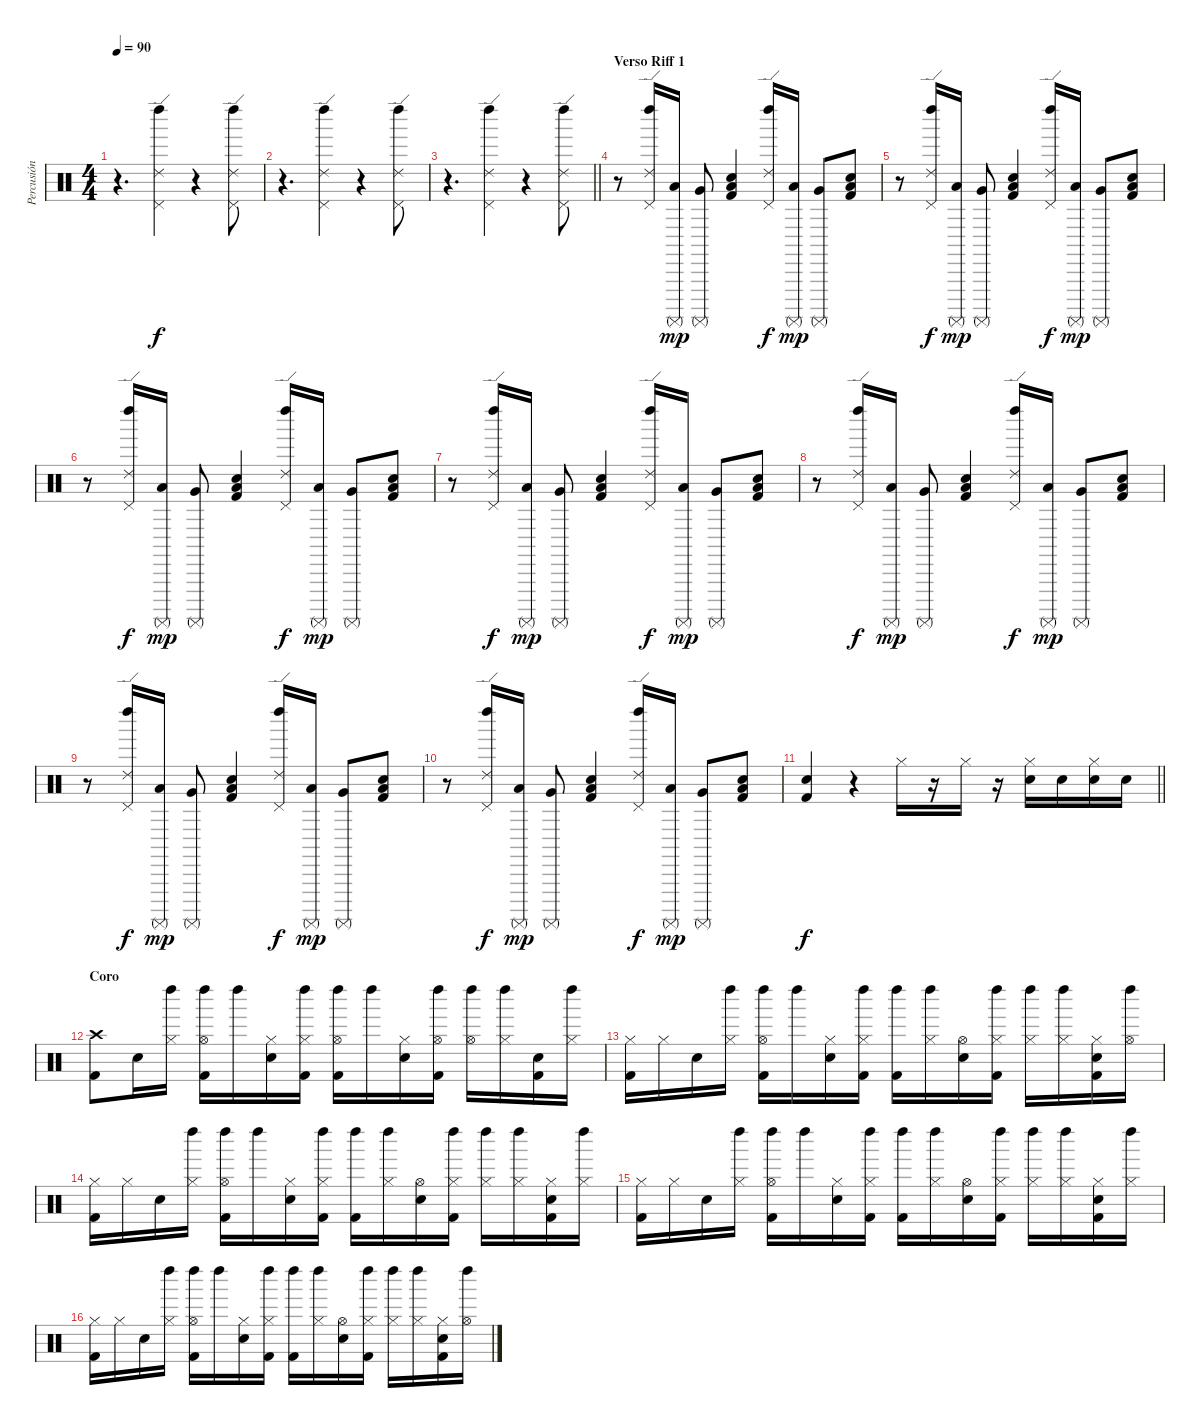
\track ("Percusión" "Percusión") {instrument percussion}
\staff {score}
\articulation defaults
\ts (4 4)
\tempo 90
\clef neutral
\ks c
r.4{d dy f} ("Pedal Hi-Hat (hit)" "Ride (edge) 2" "Left Maraca (hit)").4 r.4 ("Pedal Hi-Hat (hit)" "Ride (edge) 2" "Left Maraca (hit)").8 |
r.4{d} ("Pedal Hi-Hat (hit)" "Ride (edge) 2" "Left Maraca (hit)").4 r.4 ("Pedal Hi-Hat (hit)" "Ride (edge) 2" "Left Maraca (hit)").8 |
\barLineRight lightlight
r.4{d} ("Pedal Hi-Hat (hit)" "Ride (edge) 2" "Left Maraca (hit)").4 r.4 ("Pedal Hi-Hat (hit)" "Ride (edge) 2" "Left Maraca (hit)").8 |
\section ("" "Verso Riff 1")
r.8 ("Pedal Hi-Hat (hit)" "Ride (edge) 2" "Left Maraca (hit)").16 ("Low Tom (hit)" "Surdo (mute)").16{dy mp} ("Very Low Tom (hit)" "Surdo (mute)").8 ("Snare (hit) 2" "Low Floor Tom (hit)" "Kick (hit) 2").4 ("Pedal Hi-Hat (hit)" "Ride (edge) 2" "Left Maraca (hit)").16{dy f} ("Low Tom (hit)" "Surdo (mute)").16{dy mp} ("Very Low Tom (hit)" "Surdo (mute)").8 ("Snare (hit) 2" "Low Floor Tom (hit)" "Kick (hit) 2").8 |
r.8 ("Pedal Hi-Hat (hit)" "Ride (edge) 2" "Left Maraca (hit)").16{dy f} ("Low Tom (hit)" "Surdo (mute)").16{dy mp} ("Very Low Tom (hit)" "Surdo (mute)").8 ("Snare (hit) 2" "Low Floor Tom (hit)" "Kick (hit) 2").4 ("Pedal Hi-Hat (hit)" "Ride (edge) 2" "Left Maraca (hit)").16{dy f} ("Low Tom (hit)" "Surdo (mute)").16{dy mp} ("Very Low Tom (hit)" "Surdo (mute)").8 ("Snare (hit) 2" "Low Floor Tom (hit)" "Kick (hit) 2").8 |
r.8 ("Pedal Hi-Hat (hit)" "Ride (edge) 2" "Left Maraca (hit)").16{dy f} ("Low Tom (hit)" "Surdo (mute)").16{dy mp} ("Very Low Tom (hit)" "Surdo (mute)").8 ("Snare (hit) 2" "Low Floor Tom (hit)" "Kick (hit) 2").4 ("Pedal Hi-Hat (hit)" "Ride (edge) 2" "Left Maraca (hit)").16{dy f} ("Low Tom (hit)" "Surdo (mute)").16{dy mp} ("Very Low Tom (hit)" "Surdo (mute)").8 ("Snare (hit) 2" "Low Floor Tom (hit)" "Kick (hit) 2").8 |
r.8 ("Pedal Hi-Hat (hit)" "Ride (edge) 2" "Left Maraca (hit)").16{dy f} ("Low Tom (hit)" "Surdo (mute)").16{dy mp} ("Very Low Tom (hit)" "Surdo (mute)").8 ("Snare (hit) 2" "Low Floor Tom (hit)" "Kick (hit) 2").4 ("Pedal Hi-Hat (hit)" "Ride (edge) 2" "Left Maraca (hit)").16{dy f} ("Low Tom (hit)" "Surdo (mute)").16{dy mp} ("Very Low Tom (hit)" "Surdo (mute)").8 ("Snare (hit) 2" "Low Floor Tom (hit)" "Kick (hit) 2").8 |
r.8 ("Pedal Hi-Hat (hit)" "Ride (edge) 2" "Left Maraca (hit)").16{dy f} ("Low Tom (hit)" "Surdo (mute)").16{dy mp} ("Very Low Tom (hit)" "Surdo (mute)").8 ("Snare (hit) 2" "Low Floor Tom (hit)" "Kick (hit) 2").4 ("Pedal Hi-Hat (hit)" "Ride (edge) 2" "Left Maraca (hit)").16{dy f} ("Low Tom (hit)" "Surdo (mute)").16{dy mp} ("Very Low Tom (hit)" "Surdo (mute)").8 ("Snare (hit) 2" "Low Floor Tom (hit)" "Kick (hit) 2").8 |
r.8 ("Pedal Hi-Hat (hit)" "Ride (edge) 2" "Left Maraca (hit)").16{dy f} ("Low Tom (hit)" "Surdo (mute)").16{dy mp} ("Very Low Tom (hit)" "Surdo (mute)").8 ("Snare (hit) 2" "Low Floor Tom (hit)" "Kick (hit) 2").4 ("Pedal Hi-Hat (hit)" "Ride (edge) 2" "Left Maraca (hit)").16{dy f} ("Low Tom (hit)" "Surdo (mute)").16{dy mp} ("Very Low Tom (hit)" "Surdo (mute)").8 ("Snare (hit) 2" "Low Floor Tom (hit)" "Kick (hit) 2").8 |
r.8 ("Pedal Hi-Hat (hit)" "Ride (edge) 2" "Left Maraca (hit)").16{dy f} ("Low Tom (hit)" "Surdo (mute)").16{dy mp} ("Very Low Tom (hit)" "Surdo (mute)").8 ("Snare (hit) 2" "Low Floor Tom (hit)" "Kick (hit) 2").4 ("Pedal Hi-Hat (hit)" "Ride (edge) 2" "Left Maraca (hit)").16{dy f} ("Low Tom (hit)" "Surdo (mute)").16{dy mp} ("Very Low Tom (hit)" "Surdo (mute)").8 ("Snare (hit) 2" "Low Floor Tom (hit)" "Kick (hit) 2").8 |
\barLineRight lightlight
("Snare (hit) 2" "Kick (hit) 2").4{dy f} r.4 "Hi-Hat (closed)".16 r.16 "Hi-Hat (closed)".16 r.16 ("Hi-Hat (closed)" "Snare (hit) 2").16 "Snare (hit) 2".16 ("Hi-Hat (closed)" "Snare (hit) 2").16 "Snare (hit) 2".16 |
\section ("" "Coro")
("Crash high (hit)" "Kick (hit) 2").8 "Snare (hit) 2".16 ("Hi-Hat (closed)" "Left Maraca (hit)").16 ("Hi-Hat (open)" "Left Maraca (hit)" "Kick (hit) 2").16 "Left Maraca (hit)".16 ("Hi-Hat (closed)" "Snare (hit) 2").16 ("Hi-Hat (closed)" "Left Maraca (hit)" "Kick (hit) 2").16 ("Hi-Hat (open)" "Left Maraca (hit)" "Kick (hit) 2").16 "Left Maraca (hit)".16 ("Hi-Hat (closed)" "Snare (hit) 2").16 ("Hi-Hat (open)" "Left Maraca (hit)" "Kick (hit) 2").16 ("Hi-Hat (open)" "Left Maraca (hit)").16 ("Hi-Hat (closed)" "Left Maraca (hit)").16 ("Snare (hit) 2" "Kick (hit) 2").16 ("Hi-Hat (closed)" "Left Maraca (hit)").16 |
("Hi-Hat (closed)" "Kick (hit) 2").16 "Hi-Hat (closed)".16 "Snare (hit) 2".16 ("Hi-Hat (closed)" "Left Maraca (hit)").16 ("Hi-Hat (open)" "Left Maraca (hit)" "Kick (hit) 2").16 "Left Maraca (hit)".16 ("Hi-Hat (closed)" "Snare (hit) 2").16 ("Hi-Hat (closed)" "Left Maraca (hit)" "Kick (hit) 2").16 ("Left Maraca (hit)" "Kick (hit) 2").16 ("Hi-Hat (closed)" "Left Maraca (hit)").16 ("Hi-Hat (open)" "Snare (hit) 2").16 ("Hi-Hat (closed)" "Left Maraca (hit)" "Kick (hit) 2").16 ("Hi-Hat (closed)" "Left Maraca (hit)").16 ("Hi-Hat (closed)" "Left Maraca (hit)").16 ("Hi-Hat (closed)" "Snare (hit) 2" "Kick (hit) 2").16 ("Hi-Hat (open)" "Left Maraca (hit)").16 |
("Hi-Hat (closed)" "Kick (hit) 2").16 "Hi-Hat (closed)".16 "Snare (hit) 2".16 ("Hi-Hat (closed)" "Left Maraca (hit)").16 ("Hi-Hat (open)" "Left Maraca (hit)" "Kick (hit) 2").16 "Left Maraca (hit)".16 ("Hi-Hat (closed)" "Snare (hit) 2").16 ("Hi-Hat (closed)" "Left Maraca (hit)" "Kick (hit) 2").16 ("Left Maraca (hit)" "Kick (hit) 2").16 ("Hi-Hat (closed)" "Left Maraca (hit)").16 ("Hi-Hat (open)" "Snare (hit) 2").16 ("Hi-Hat (closed)" "Left Maraca (hit)" "Kick (hit) 2").16 ("Hi-Hat (closed)" "Left Maraca (hit)").16 ("Hi-Hat (closed)" "Left Maraca (hit)").16 ("Hi-Hat (closed)" "Snare (hit) 2" "Kick (hit) 2").16 ("Hi-Hat (closed)" "Left Maraca (hit)").16 |
("Hi-Hat (closed)" "Kick (hit) 2").16 "Hi-Hat (closed)".16 "Snare (hit) 2".16 ("Hi-Hat (closed)" "Left Maraca (hit)").16 ("Hi-Hat (open)" "Left Maraca (hit)" "Kick (hit) 2").16 "Left Maraca (hit)".16 ("Hi-Hat (closed)" "Snare (hit) 2").16 ("Hi-Hat (closed)" "Left Maraca (hit)" "Kick (hit) 2").16 ("Left Maraca (hit)" "Kick (hit) 2").16 ("Hi-Hat (closed)" "Left Maraca (hit)").16 ("Hi-Hat (open)" "Snare (hit) 2").16 ("Hi-Hat (closed)" "Left Maraca (hit)" "Kick (hit) 2").16 ("Hi-Hat (closed)" "Left Maraca (hit)").16 ("Hi-Hat (closed)" "Left Maraca (hit)").16 ("Hi-Hat (closed)" "Snare (hit) 2" "Kick (hit) 2").16 ("Hi-Hat (closed)" "Left Maraca (hit)").16 |
("Hi-Hat (closed)" "Kick (hit) 2").16 "Hi-Hat (closed)".16 "Snare (hit) 2".16 ("Hi-Hat (closed)" "Left Maraca (hit)").16 ("Hi-Hat (open)" "Left Maraca (hit)" "Kick (hit) 2").16 "Left Maraca (hit)".16 ("Hi-Hat (closed)" "Snare (hit) 2").16 ("Hi-Hat (closed)" "Left Maraca (hit)" "Kick (hit) 2").16 ("Left Maraca (hit)" "Kick (hit) 2").16 ("Hi-Hat (closed)" "Left Maraca (hit)").16 ("Hi-Hat (open)" "Snare (hit) 2").16 ("Hi-Hat (closed)" "Left Maraca (hit)" "Kick (hit) 2").16 ("Hi-Hat (closed)" "Left Maraca (hit)").16 ("Hi-Hat (closed)" "Left Maraca (hit)").16 ("Hi-Hat (closed)" "Snare (hit) 2" "Kick (hit) 2").16 ("Hi-Hat (open)" "Left Maraca (hit)").16
